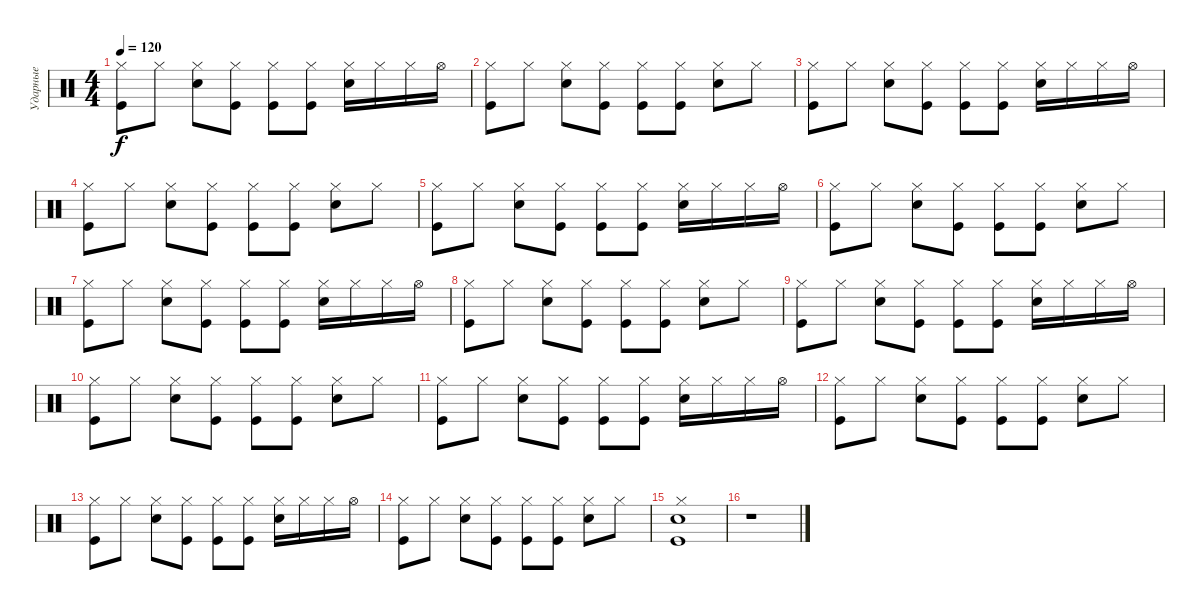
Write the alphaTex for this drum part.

\track ("Ударные" "Ударные") {instrument percussion}
\staff {score}
\articulation defaults
\ts (4 4)
\tempo 120
\clef neutral
\ks c
("Kick (hit)" "Hi-Hat (closed)").8{dy f} "Hi-Hat (closed)".8 ("Hi-Hat (closed)" "Snare (hit) 2").8 ("Hi-Hat (closed)" "Kick (hit)").8 ("Hi-Hat (closed)" "Kick (hit)").8 ("Hi-Hat (closed)" "Kick (hit)").8 ("Hi-Hat (closed)" "Snare (hit) 2").16 "Hi-Hat (closed)".16 "Hi-Hat (closed)".16 "Hi-Hat (open)".16 |
("Kick (hit)" "Hi-Hat (closed)").8 "Hi-Hat (closed)".8 ("Hi-Hat (closed)" "Snare (hit) 2").8 ("Hi-Hat (closed)" "Kick (hit)").8 ("Hi-Hat (closed)" "Kick (hit)").8 ("Hi-Hat (closed)" "Kick (hit)").8 ("Hi-Hat (closed)" "Snare (hit) 2").8 "Hi-Hat (closed)".8 |
("Kick (hit)" "Hi-Hat (closed)").8 "Hi-Hat (closed)".8 ("Hi-Hat (closed)" "Snare (hit) 2").8 ("Hi-Hat (closed)" "Kick (hit)").8 ("Hi-Hat (closed)" "Kick (hit)").8 ("Hi-Hat (closed)" "Kick (hit)").8 ("Hi-Hat (closed)" "Snare (hit) 2").16 "Hi-Hat (closed)".16 "Hi-Hat (closed)".16 "Hi-Hat (open)".16 |
("Kick (hit)" "Hi-Hat (closed)").8 "Hi-Hat (closed)".8 ("Hi-Hat (closed)" "Snare (hit) 2").8 ("Hi-Hat (closed)" "Kick (hit)").8 ("Hi-Hat (closed)" "Kick (hit)").8 ("Hi-Hat (closed)" "Kick (hit)").8 ("Hi-Hat (closed)" "Snare (hit) 2").8 "Hi-Hat (closed)".8 |
("Kick (hit)" "Hi-Hat (closed)").8 "Hi-Hat (closed)".8 ("Hi-Hat (closed)" "Snare (hit) 2").8 ("Hi-Hat (closed)" "Kick (hit)").8 ("Hi-Hat (closed)" "Kick (hit)").8 ("Hi-Hat (closed)" "Kick (hit)").8 ("Hi-Hat (closed)" "Snare (hit) 2").16 "Hi-Hat (closed)".16 "Hi-Hat (closed)".16 "Hi-Hat (open)".16 |
("Kick (hit)" "Hi-Hat (closed)").8 "Hi-Hat (closed)".8 ("Hi-Hat (closed)" "Snare (hit) 2").8 ("Hi-Hat (closed)" "Kick (hit)").8 ("Hi-Hat (closed)" "Kick (hit)").8 ("Hi-Hat (closed)" "Kick (hit)").8 ("Hi-Hat (closed)" "Snare (hit) 2").8 "Hi-Hat (closed)".8 |
("Kick (hit)" "Hi-Hat (closed)").8 "Hi-Hat (closed)".8 ("Hi-Hat (closed)" "Snare (hit) 2").8 ("Hi-Hat (closed)" "Kick (hit)").8 ("Hi-Hat (closed)" "Kick (hit)").8 ("Hi-Hat (closed)" "Kick (hit)").8 ("Hi-Hat (closed)" "Snare (hit) 2").16 "Hi-Hat (closed)".16 "Hi-Hat (closed)".16 "Hi-Hat (open)".16 |
("Kick (hit)" "Hi-Hat (closed)").8 "Hi-Hat (closed)".8 ("Hi-Hat (closed)" "Snare (hit) 2").8 ("Hi-Hat (closed)" "Kick (hit)").8 ("Hi-Hat (closed)" "Kick (hit)").8 ("Hi-Hat (closed)" "Kick (hit)").8 ("Hi-Hat (closed)" "Snare (hit) 2").8 "Hi-Hat (closed)".8 |
("Kick (hit)" "Hi-Hat (closed)").8 "Hi-Hat (closed)".8 ("Hi-Hat (closed)" "Snare (hit) 2").8 ("Hi-Hat (closed)" "Kick (hit)").8 ("Hi-Hat (closed)" "Kick (hit)").8 ("Hi-Hat (closed)" "Kick (hit)").8 ("Hi-Hat (closed)" "Snare (hit) 2").16 "Hi-Hat (closed)".16 "Hi-Hat (closed)".16 "Hi-Hat (open)".16 |
("Kick (hit)" "Hi-Hat (closed)").8 "Hi-Hat (closed)".8 ("Hi-Hat (closed)" "Snare (hit) 2").8 ("Hi-Hat (closed)" "Kick (hit)").8 ("Hi-Hat (closed)" "Kick (hit)").8 ("Hi-Hat (closed)" "Kick (hit)").8 ("Hi-Hat (closed)" "Snare (hit) 2").8 "Hi-Hat (closed)".8 |
("Kick (hit)" "Hi-Hat (closed)").8 "Hi-Hat (closed)".8 ("Hi-Hat (closed)" "Snare (hit) 2").8 ("Hi-Hat (closed)" "Kick (hit)").8 ("Hi-Hat (closed)" "Kick (hit)").8 ("Hi-Hat (closed)" "Kick (hit)").8 ("Hi-Hat (closed)" "Snare (hit) 2").16 "Hi-Hat (closed)".16 "Hi-Hat (closed)".16 "Hi-Hat (open)".16 |
("Kick (hit)" "Hi-Hat (closed)").8 "Hi-Hat (closed)".8 ("Hi-Hat (closed)" "Snare (hit) 2").8 ("Hi-Hat (closed)" "Kick (hit)").8 ("Hi-Hat (closed)" "Kick (hit)").8 ("Hi-Hat (closed)" "Kick (hit)").8 ("Hi-Hat (closed)" "Snare (hit) 2").8 "Hi-Hat (closed)".8 |
("Kick (hit)" "Hi-Hat (closed)").8 "Hi-Hat (closed)".8 ("Hi-Hat (closed)" "Snare (hit) 2").8 ("Hi-Hat (closed)" "Kick (hit)").8 ("Hi-Hat (closed)" "Kick (hit)").8 ("Hi-Hat (closed)" "Kick (hit)").8 ("Hi-Hat (closed)" "Snare (hit) 2").16 "Hi-Hat (closed)".16 "Hi-Hat (closed)".16 "Hi-Hat (open)".16 |
("Kick (hit)" "Hi-Hat (closed)").8 "Hi-Hat (closed)".8 ("Hi-Hat (closed)" "Snare (hit) 2").8 ("Hi-Hat (closed)" "Kick (hit)").8 ("Hi-Hat (closed)" "Kick (hit)").8 ("Hi-Hat (closed)" "Kick (hit)").8 ("Hi-Hat (closed)" "Snare (hit) 2").8 "Hi-Hat (closed)".8 |
("Kick (hit)" "Snare (hit) 2" "Hi-Hat (closed)").1 |
r.1
